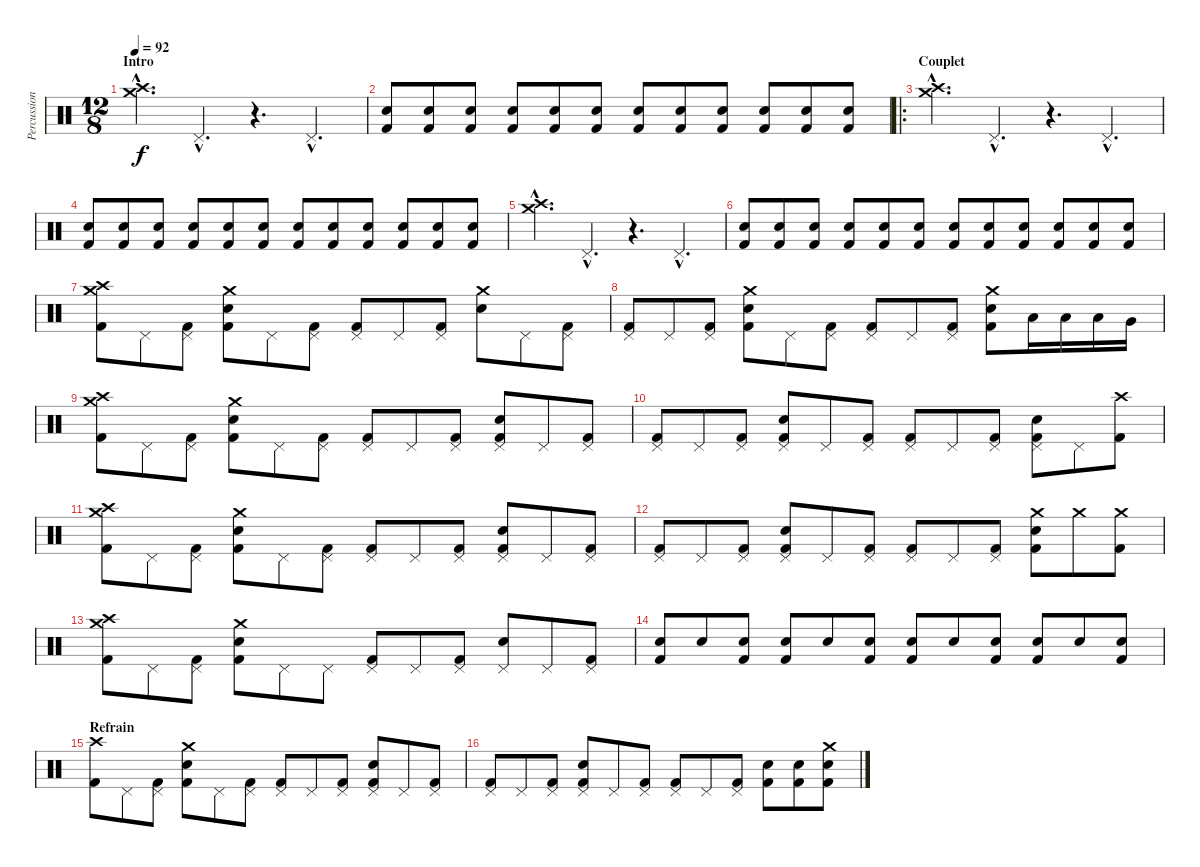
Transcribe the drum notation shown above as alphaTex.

\track ("Percussions" "Percussion") {instrument percussion}
\staff {score}
\articulation defaults
\ts (12 8)
\section ("" "Intro")
\tempo 92
\clef neutral
\ks c
("Crash medium (hit)"{hac} "Crash high (hit)"{hac}).4{d dy f} "Pedal Hi-Hat (hit)"{hac}.4{d} r.4{d} "Pedal Hi-Hat (hit)"{hac}.4{d} |
("Snare (hit) 2" "Kick (hit) 2").8{volume 6} ("Snare (hit) 2" "Kick (hit) 2").8{volume 13} ("Snare (hit) 2" "Kick (hit) 2").8 ("Snare (hit) 2" "Kick (hit) 2").8 ("Snare (hit) 2" "Kick (hit) 2").8 ("Snare (hit) 2" "Kick (hit) 2").8 ("Snare (hit) 2" "Kick (hit) 2").8 ("Snare (hit) 2" "Kick (hit) 2").8 ("Snare (hit) 2" "Kick (hit) 2").8 ("Snare (hit) 2" "Kick (hit) 2").8 ("Snare (hit) 2" "Kick (hit) 2").8 ("Snare (hit) 2" "Kick (hit) 2").8 |
\ro
\section ("" "Couplet")
("Crash medium (hit)"{hac} "Crash high (hit)"{hac}).4{d} "Pedal Hi-Hat (hit)"{hac}.4{d} r.4{d} "Pedal Hi-Hat (hit)"{hac}.4{d} |
("Snare (hit) 2" "Kick (hit) 2").8{volume 6} ("Snare (hit) 2" "Kick (hit) 2").8{volume 13} ("Snare (hit) 2" "Kick (hit) 2").8 ("Snare (hit) 2" "Kick (hit) 2").8 ("Snare (hit) 2" "Kick (hit) 2").8 ("Snare (hit) 2" "Kick (hit) 2").8 ("Snare (hit) 2" "Kick (hit) 2").8 ("Snare (hit) 2" "Kick (hit) 2").8 ("Snare (hit) 2" "Kick (hit) 2").8 ("Snare (hit) 2" "Kick (hit) 2").8 ("Snare (hit) 2" "Kick (hit) 2").8 ("Snare (hit) 2" "Kick (hit) 2").8 |
("Crash medium (hit)"{hac} "Crash high (hit)"{hac}).4{d} "Pedal Hi-Hat (hit)"{hac}.4{d} r.4{d} "Pedal Hi-Hat (hit)"{hac}.4{d} |
("Snare (hit) 2" "Kick (hit) 2").8{volume 6} ("Snare (hit) 2" "Kick (hit) 2").8{volume 13} ("Snare (hit) 2" "Kick (hit) 2").8 ("Snare (hit) 2" "Kick (hit) 2").8 ("Snare (hit) 2" "Kick (hit) 2").8 ("Snare (hit) 2" "Kick (hit) 2").8 ("Snare (hit) 2" "Kick (hit) 2").8 ("Snare (hit) 2" "Kick (hit) 2").8 ("Snare (hit) 2" "Kick (hit) 2").8 ("Snare (hit) 2" "Kick (hit) 2").8 ("Snare (hit) 2" "Kick (hit) 2").8 ("Snare (hit) 2" "Kick (hit) 2").8 |
("Crash medium (hit)" "Crash high (hit)" "Kick (hit) 2").8 "Pedal Hi-Hat (hit)".8 ("Pedal Hi-Hat (hit)" "Kick (hit) 2").8 ("Crash medium (hit)" "Electric Snare (hit)" "Kick (hit) 2").8 "Pedal Hi-Hat (hit)".8 ("Pedal Hi-Hat (hit)" "Kick (hit) 2").8 ("Pedal Hi-Hat (hit)" "Kick (hit) 2").8 "Pedal Hi-Hat (hit)".8 ("Pedal Hi-Hat (hit)" "Kick (hit) 2").8 ("Crash medium (hit)" "Electric Snare (hit)").8 "Pedal Hi-Hat (hit)".8 ("Pedal Hi-Hat (hit)" "Kick (hit) 2").8 |
("Pedal Hi-Hat (hit)" "Kick (hit) 2").8 "Pedal Hi-Hat (hit)".8 ("Pedal Hi-Hat (hit)" "Kick (hit) 2").8 ("Crash medium (hit)" "Electric Snare (hit)" "Kick (hit) 2").8 "Pedal Hi-Hat (hit)".8 ("Pedal Hi-Hat (hit)" "Kick (hit) 2").8 ("Pedal Hi-Hat (hit)" "Kick (hit) 2").8 "Pedal Hi-Hat (hit)".8 ("Pedal Hi-Hat (hit)" "Kick (hit) 2").8 ("Crash medium (hit)" "Electric Snare (hit)" "Kick (hit) 2").8 "Low Tom (hit)".16 "Low Tom (hit)".16 "Low Tom (hit)".16 "Very Low Tom (hit)".16 |
("Crash medium (hit)" "Crash high (hit)" "Kick (hit) 2").8 "Pedal Hi-Hat (hit)".8 ("Pedal Hi-Hat (hit)" "Kick (hit) 2").8 ("Crash medium (hit)" "Electric Snare (hit)" "Kick (hit) 2").8 "Pedal Hi-Hat (hit)".8 ("Pedal Hi-Hat (hit)" "Kick (hit) 2").8 ("Pedal Hi-Hat (hit)" "Kick (hit) 2").8 "Pedal Hi-Hat (hit)".8 ("Pedal Hi-Hat (hit)" "Kick (hit) 2").8 ("Pedal Hi-Hat (hit)" "Electric Snare (hit)" "Kick (hit) 2").8 "Pedal Hi-Hat (hit)".8 ("Pedal Hi-Hat (hit)" "Kick (hit) 2").8 |
("Pedal Hi-Hat (hit)" "Kick (hit) 2").8 "Pedal Hi-Hat (hit)".8 ("Pedal Hi-Hat (hit)" "Kick (hit) 2").8 ("Pedal Hi-Hat (hit)" "Electric Snare (hit)" "Kick (hit) 2").8 "Pedal Hi-Hat (hit)".8 ("Pedal Hi-Hat (hit)" "Kick (hit) 2").8 ("Pedal Hi-Hat (hit)" "Kick (hit) 2").8 "Pedal Hi-Hat (hit)".8 ("Pedal Hi-Hat (hit)" "Kick (hit) 2").8 ("Pedal Hi-Hat (hit)" "Electric Snare (hit)" "Kick (hit) 2").8 "Pedal Hi-Hat (hit)".8 ("Crash high (hit)" "Kick (hit) 2").8 |
("Crash medium (hit)" "Crash high (hit)" "Kick (hit) 2").8 "Pedal Hi-Hat (hit)".8 ("Pedal Hi-Hat (hit)" "Kick (hit) 2").8 ("Crash medium (hit)" "Electric Snare (hit)" "Kick (hit) 2").8 "Pedal Hi-Hat (hit)".8 ("Pedal Hi-Hat (hit)" "Kick (hit) 2").8 ("Pedal Hi-Hat (hit)" "Kick (hit) 2").8 "Pedal Hi-Hat (hit)".8 ("Pedal Hi-Hat (hit)" "Kick (hit) 2").8 ("Pedal Hi-Hat (hit)" "Electric Snare (hit)" "Kick (hit) 2").8 "Pedal Hi-Hat (hit)".8 ("Pedal Hi-Hat (hit)" "Kick (hit) 2").8 |
("Pedal Hi-Hat (hit)" "Kick (hit) 2").8 "Pedal Hi-Hat (hit)".8 ("Pedal Hi-Hat (hit)" "Kick (hit) 2").8 ("Pedal Hi-Hat (hit)" "Electric Snare (hit)" "Kick (hit) 2").8 "Pedal Hi-Hat (hit)".8 ("Pedal Hi-Hat (hit)" "Kick (hit) 2").8 ("Pedal Hi-Hat (hit)" "Kick (hit) 2").8 "Pedal Hi-Hat (hit)".8 ("Pedal Hi-Hat (hit)" "Kick (hit) 2").8 ("Crash medium (hit)" "Electric Snare (hit)" "Kick (hit) 2").8 "Crash medium (hit)".8 ("Crash medium (hit)" "Kick (hit) 2").8 |
("Crash high (hit)" "Crash medium (hit)" "Kick (hit) 2").8 "Pedal Hi-Hat (hit)".8 ("Pedal Hi-Hat (hit)" "Kick (hit) 2").8 ("Crash medium (hit)" "Electric Snare (hit)" "Kick (hit) 2").8 "Pedal Hi-Hat (hit)".8 "Pedal Hi-Hat (hit)".8 ("Pedal Hi-Hat (hit)" "Kick (hit) 2").8 "Pedal Hi-Hat (hit)".8 ("Pedal Hi-Hat (hit)" "Kick (hit) 2").8 ("Pedal Hi-Hat (hit)" "Electric Snare (hit)").8 "Pedal Hi-Hat (hit)".8 ("Pedal Hi-Hat (hit)" "Kick (hit) 2").8{volume 7} |
("Snare (hit) 2" "Kick (hit) 2").8{volume 13} "Snare (hit) 2".8 ("Snare (hit) 2" "Kick (hit) 2").8 ("Snare (hit) 2" "Kick (hit) 2").8 "Snare (hit) 2".8 ("Snare (hit) 2" "Kick (hit) 2").8 ("Snare (hit) 2" "Kick (hit) 2").8 "Snare (hit) 2".8 ("Snare (hit) 2" "Kick (hit) 2").8 ("Snare (hit) 2" "Kick (hit) 2").8 "Snare (hit) 2".8 ("Snare (hit) 2" "Kick (hit) 2").8 |
\section ("" "Refrain")
("Crash high (hit)" "Kick (hit) 2").8 "Pedal Hi-Hat (hit)".8 ("Pedal Hi-Hat (hit)" "Kick (hit) 2").8 ("Crash medium (hit)" "Electric Snare (hit)" "Kick (hit) 2").8 "Pedal Hi-Hat (hit)".8 ("Pedal Hi-Hat (hit)" "Kick (hit) 2").8 ("Pedal Hi-Hat (hit)" "Kick (hit) 2").8 "Pedal Hi-Hat (hit)".8 ("Pedal Hi-Hat (hit)" "Kick (hit) 2").8 ("Pedal Hi-Hat (hit)" "Electric Snare (hit)" "Kick (hit) 2").8 "Pedal Hi-Hat (hit)".8 ("Pedal Hi-Hat (hit)" "Kick (hit) 2").8 |
("Pedal Hi-Hat (hit)" "Kick (hit) 2").8 "Pedal Hi-Hat (hit)".8 ("Pedal Hi-Hat (hit)" "Kick (hit) 2").8 ("Pedal Hi-Hat (hit)" "Electric Snare (hit)" "Kick (hit) 2").8 "Pedal Hi-Hat (hit)".8 ("Pedal Hi-Hat (hit)" "Kick (hit) 2").8 ("Pedal Hi-Hat (hit)" "Kick (hit) 2").8 "Pedal Hi-Hat (hit)".8 ("Pedal Hi-Hat (hit)" "Kick (hit) 2").8 ("Snare (hit) 2" "Kick (hit) 2").8 ("Snare (hit) 2" "Kick (hit) 2").8 ("Crash medium (hit)" "Snare (hit) 2" "Kick (hit) 2").8
